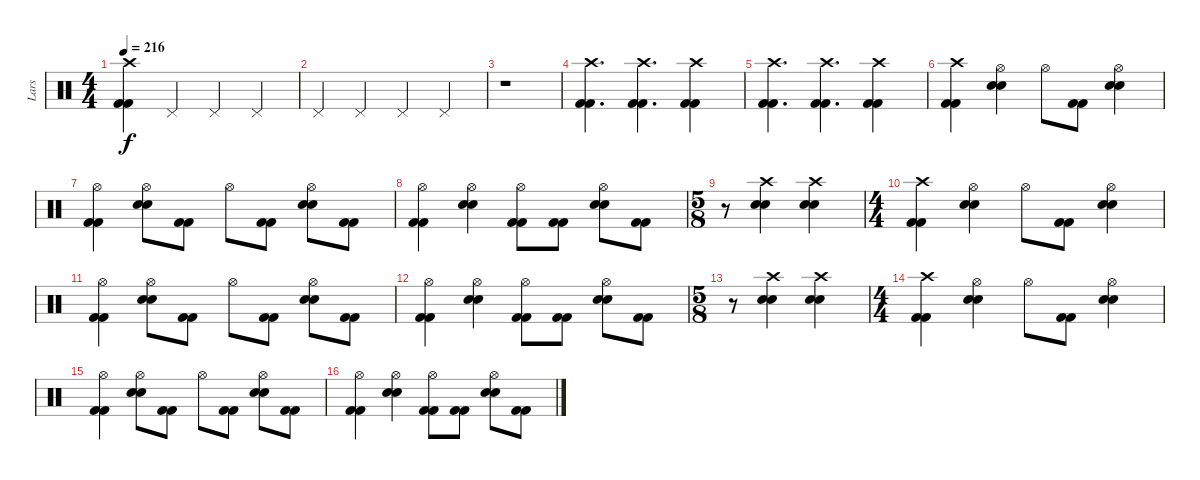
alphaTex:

\track ("Lars" "Lars") {instrument percussion}
\staff {score}
\articulation defaults
\ts (4 4)
\tempo 216
\clef neutral
\ks c
("Crash high (hit)" "Kick (hit) 2" "Kick (hit) 2").4{dy f} "Pedal Hi-Hat (hit)".4 "Pedal Hi-Hat (hit)".4 "Pedal Hi-Hat (hit)".4 |
"Pedal Hi-Hat (hit)".4 "Pedal Hi-Hat (hit)".4 "Pedal Hi-Hat (hit)".4 "Pedal Hi-Hat (hit)".4 |
r.1 |
("Crash high (hit)" "Kick (hit) 2" "Kick (hit) 2").4{d} ("Crash high (hit)" "Kick (hit) 2" "Kick (hit) 2").4{d} ("Crash high (hit)" "Kick (hit) 2" "Kick (hit) 2").4 |
("Crash high (hit)" "Kick (hit) 2" "Kick (hit) 2").4{d} ("Crash high (hit)" "Kick (hit) 2" "Kick (hit) 2").4{d} ("Crash high (hit)" "Kick (hit) 2" "Kick (hit) 2").4 |
("Crash high (hit)" "Kick (hit) 2" "Kick (hit) 2").4 ("Hi-Hat (open)" "Electric Snare (hit)" "Electric Snare (hit)").4 "Hi-Hat (open)".8 ("Kick (hit) 2" "Kick (hit) 2").8 ("Hi-Hat (open)" "Electric Snare (hit)" "Electric Snare (hit)").4 |
("Hi-Hat (open)" "Kick (hit) 2" "Kick (hit) 2").4 ("Hi-Hat (open)" "Electric Snare (hit)" "Electric Snare (hit)").8 ("Kick (hit) 2" "Kick (hit) 2").8 "Hi-Hat (open)".8 ("Kick (hit) 2" "Kick (hit) 2").8 ("Hi-Hat (open)" "Electric Snare (hit)" "Electric Snare (hit)").8 ("Kick (hit) 2" "Kick (hit) 2").8 |
("Hi-Hat (open)" "Kick (hit) 2" "Kick (hit) 2").4 ("Hi-Hat (open)" "Electric Snare (hit)" "Electric Snare (hit)").4 ("Hi-Hat (open)" "Kick (hit) 2" "Kick (hit) 2").8 ("Kick (hit) 2" "Kick (hit) 2").8 ("Hi-Hat (open)" "Electric Snare (hit)" "Electric Snare (hit)").8 ("Kick (hit) 2" "Kick (hit) 2").8 |
\ts (5 8)
r.8 ("Crash high (hit)" "Electric Snare (hit)" "Electric Snare (hit)").4 ("Crash high (hit)" "Electric Snare (hit)" "Electric Snare (hit)").4 |
\ts (4 4)
("Crash high (hit)" "Kick (hit) 2" "Kick (hit) 2").4 ("Hi-Hat (open)" "Electric Snare (hit)" "Electric Snare (hit)").4 "Hi-Hat (open)".8 ("Kick (hit) 2" "Kick (hit) 2").8 ("Hi-Hat (open)" "Electric Snare (hit)" "Electric Snare (hit)").4 |
("Hi-Hat (open)" "Kick (hit) 2" "Kick (hit) 2").4 ("Hi-Hat (open)" "Electric Snare (hit)" "Electric Snare (hit)").8 ("Kick (hit) 2" "Kick (hit) 2").8 "Hi-Hat (open)".8 ("Kick (hit) 2" "Kick (hit) 2").8 ("Hi-Hat (open)" "Electric Snare (hit)" "Electric Snare (hit)").8 ("Kick (hit) 2" "Kick (hit) 2").8 |
("Hi-Hat (open)" "Kick (hit) 2" "Kick (hit) 2").4 ("Hi-Hat (open)" "Electric Snare (hit)" "Electric Snare (hit)").4 ("Hi-Hat (open)" "Kick (hit) 2" "Kick (hit) 2").8 ("Kick (hit) 2" "Kick (hit) 2").8 ("Hi-Hat (open)" "Electric Snare (hit)" "Electric Snare (hit)").8 ("Kick (hit) 2" "Kick (hit) 2").8 |
\ts (5 8)
r.8 ("Crash high (hit)" "Electric Snare (hit)" "Electric Snare (hit)").4 ("Crash high (hit)" "Electric Snare (hit)" "Electric Snare (hit)").4 |
\ts (4 4)
("Crash high (hit)" "Kick (hit) 2" "Kick (hit) 2").4 ("Hi-Hat (open)" "Electric Snare (hit)" "Electric Snare (hit)").4 "Hi-Hat (open)".8 ("Kick (hit) 2" "Kick (hit) 2").8 ("Hi-Hat (open)" "Electric Snare (hit)" "Electric Snare (hit)").4 |
("Hi-Hat (open)" "Kick (hit) 2" "Kick (hit) 2").4 ("Hi-Hat (open)" "Electric Snare (hit)" "Electric Snare (hit)").8 ("Kick (hit) 2" "Kick (hit) 2").8 "Hi-Hat (open)".8 ("Kick (hit) 2" "Kick (hit) 2").8 ("Hi-Hat (open)" "Electric Snare (hit)" "Electric Snare (hit)").8 ("Kick (hit) 2" "Kick (hit) 2").8 |
("Hi-Hat (open)" "Kick (hit) 2" "Kick (hit) 2").4 ("Hi-Hat (open)" "Electric Snare (hit)" "Electric Snare (hit)").4 ("Hi-Hat (open)" "Kick (hit) 2" "Kick (hit) 2").8 ("Kick (hit) 2" "Kick (hit) 2").8 ("Hi-Hat (open)" "Electric Snare (hit)" "Electric Snare (hit)").8 ("Kick (hit) 2" "Kick (hit) 2").8
